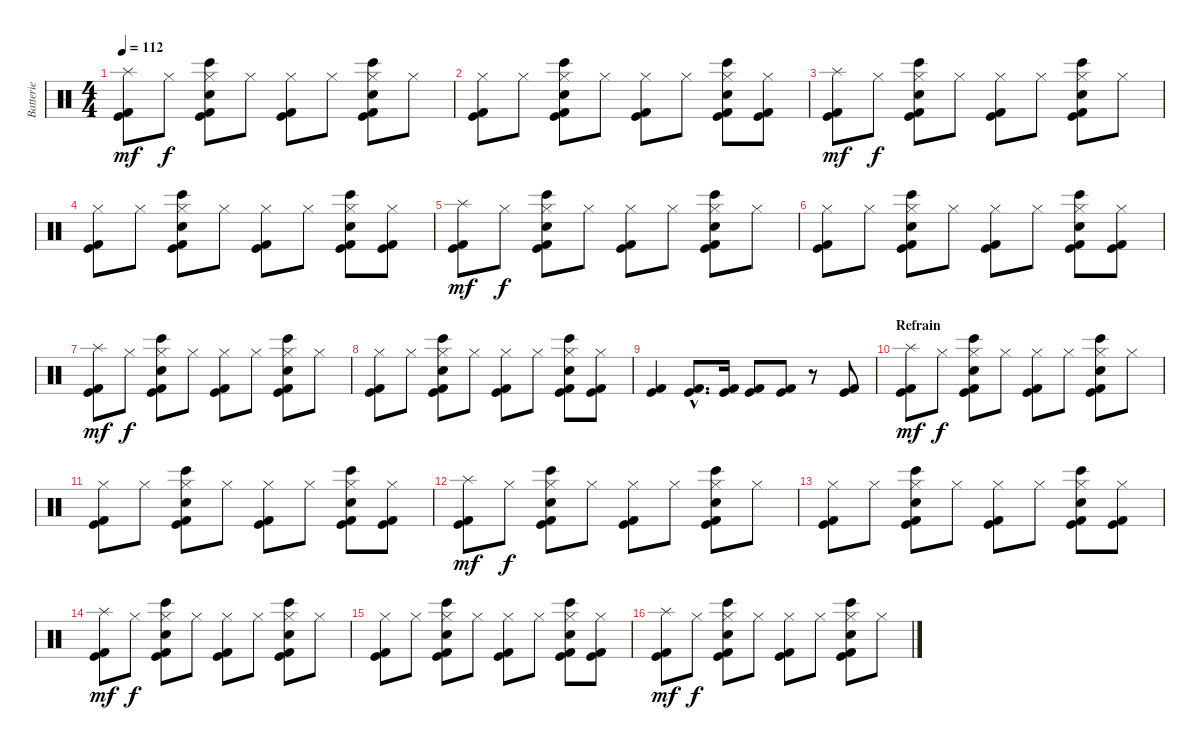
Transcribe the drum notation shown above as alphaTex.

\track ("Batterie" "Batterie") {instrument percussion}
\staff {score}
\articulation defaults
\ts (4 4)
\tempo 112
\clef neutral
\ks c
("Splash (hit)" "Kick (hit)" "Kick (hit) 2").8{dy mf} "Hi-Hat (closed)".8{dy f} ("Hi-Hat (closed)" "Electric Snare (hit)" "Bongo High (hit)" "Kick (hit)" "Kick (hit) 2").8 "Hi-Hat (closed)".8 ("Hi-Hat (closed)" "Kick (hit)" "Kick (hit) 2").8 "Hi-Hat (closed)".8 ("Hi-Hat (closed)" "Electric Snare (hit)" "Bongo High (hit)" "Kick (hit)" "Kick (hit) 2").8 "Hi-Hat (closed)".8 |
("Hi-Hat (closed)" "Kick (hit)" "Kick (hit) 2").8 "Hi-Hat (closed)".8 ("Hi-Hat (closed)" "Electric Snare (hit)" "Bongo High (hit)" "Kick (hit)" "Kick (hit) 2").8 "Hi-Hat (closed)".8 ("Hi-Hat (closed)" "Kick (hit)" "Kick (hit) 2").8 "Hi-Hat (closed)".8 ("Hi-Hat (closed)" "Electric Snare (hit)" "Bongo High (hit)" "Kick (hit)" "Kick (hit) 2").8 ("Hi-Hat (closed)" "Kick (hit)" "Kick (hit) 2").8 |
("Splash (hit)" "Kick (hit)" "Kick (hit) 2").8{dy mf} "Hi-Hat (closed)".8{dy f} ("Hi-Hat (closed)" "Electric Snare (hit)" "Bongo High (hit)" "Kick (hit)" "Kick (hit) 2").8 "Hi-Hat (closed)".8 ("Hi-Hat (closed)" "Kick (hit)" "Kick (hit) 2").8 "Hi-Hat (closed)".8 ("Hi-Hat (closed)" "Electric Snare (hit)" "Bongo High (hit)" "Kick (hit)" "Kick (hit) 2").8 "Hi-Hat (closed)".8 |
("Hi-Hat (closed)" "Kick (hit)" "Kick (hit) 2").8 "Hi-Hat (closed)".8 ("Hi-Hat (closed)" "Electric Snare (hit)" "Bongo High (hit)" "Kick (hit)" "Kick (hit) 2").8 "Hi-Hat (closed)".8 ("Hi-Hat (closed)" "Kick (hit)" "Kick (hit) 2").8 "Hi-Hat (closed)".8 ("Hi-Hat (closed)" "Electric Snare (hit)" "Bongo High (hit)" "Kick (hit)" "Kick (hit) 2").8 ("Hi-Hat (closed)" "Kick (hit)" "Kick (hit) 2").8 |
("Splash (hit)" "Kick (hit)" "Kick (hit) 2").8{dy mf} "Hi-Hat (closed)".8{dy f} ("Hi-Hat (closed)" "Electric Snare (hit)" "Bongo High (hit)" "Kick (hit)" "Kick (hit) 2").8 "Hi-Hat (closed)".8 ("Hi-Hat (closed)" "Kick (hit)" "Kick (hit) 2").8 "Hi-Hat (closed)".8 ("Hi-Hat (closed)" "Electric Snare (hit)" "Bongo High (hit)" "Kick (hit)" "Kick (hit) 2").8 "Hi-Hat (closed)".8 |
("Hi-Hat (closed)" "Kick (hit)" "Kick (hit) 2").8 "Hi-Hat (closed)".8 ("Hi-Hat (closed)" "Electric Snare (hit)" "Bongo High (hit)" "Kick (hit)" "Kick (hit) 2").8 "Hi-Hat (closed)".8 ("Hi-Hat (closed)" "Kick (hit)" "Kick (hit) 2").8 "Hi-Hat (closed)".8 ("Hi-Hat (closed)" "Electric Snare (hit)" "Bongo High (hit)" "Kick (hit)" "Kick (hit) 2").8 ("Hi-Hat (closed)" "Kick (hit)" "Kick (hit) 2").8 |
("Splash (hit)" "Kick (hit)" "Kick (hit) 2").8{dy mf} "Hi-Hat (closed)".8{dy f} ("Hi-Hat (closed)" "Electric Snare (hit)" "Bongo High (hit)" "Kick (hit)" "Kick (hit) 2").8 "Hi-Hat (closed)".8 ("Hi-Hat (closed)" "Kick (hit)" "Kick (hit) 2").8 "Hi-Hat (closed)".8 ("Hi-Hat (closed)" "Electric Snare (hit)" "Bongo High (hit)" "Kick (hit)" "Kick (hit) 2").8 "Hi-Hat (closed)".8 |
("Hi-Hat (closed)" "Kick (hit)" "Kick (hit) 2").8 "Hi-Hat (closed)".8 ("Hi-Hat (closed)" "Electric Snare (hit)" "Bongo High (hit)" "Kick (hit)" "Kick (hit) 2").8 "Hi-Hat (closed)".8 ("Hi-Hat (closed)" "Kick (hit)" "Kick (hit) 2").8 "Hi-Hat (closed)".8 ("Hi-Hat (closed)" "Electric Snare (hit)" "Bongo High (hit)" "Kick (hit)" "Kick (hit) 2").8 ("Hi-Hat (closed)" "Kick (hit)" "Kick (hit) 2").8 |
("Kick (hit)" "Kick (hit) 2").4 ("Kick (hit)"{hac} "Kick (hit) 2"{hac}).8{d} ("Kick (hit)" "Kick (hit) 2").16 ("Kick (hit)" "Kick (hit) 2").8 ("Kick (hit)" "Kick (hit) 2").8 r.8 ("Kick (hit)" "Kick (hit) 2").8 |
\section ("" "Refrain")
("Splash (hit)" "Kick (hit)" "Kick (hit) 2").8{dy mf} "Hi-Hat (closed)".8{dy f} ("Hi-Hat (closed)" "Electric Snare (hit)" "Bongo High (hit)" "Kick (hit)" "Kick (hit) 2").8 "Hi-Hat (closed)".8 ("Hi-Hat (closed)" "Kick (hit)" "Kick (hit) 2").8 "Hi-Hat (closed)".8 ("Hi-Hat (closed)" "Electric Snare (hit)" "Bongo High (hit)" "Kick (hit)" "Kick (hit) 2").8 "Hi-Hat (closed)".8 |
("Hi-Hat (closed)" "Kick (hit)" "Kick (hit) 2").8 "Hi-Hat (closed)".8 ("Hi-Hat (closed)" "Electric Snare (hit)" "Bongo High (hit)" "Kick (hit)" "Kick (hit) 2").8 "Hi-Hat (closed)".8 ("Hi-Hat (closed)" "Kick (hit)" "Kick (hit) 2").8 "Hi-Hat (closed)".8 ("Hi-Hat (closed)" "Electric Snare (hit)" "Bongo High (hit)" "Kick (hit)" "Kick (hit) 2").8 ("Hi-Hat (closed)" "Kick (hit)" "Kick (hit) 2").8 |
("Splash (hit)" "Kick (hit)" "Kick (hit) 2").8{dy mf} "Hi-Hat (closed)".8{dy f} ("Hi-Hat (closed)" "Electric Snare (hit)" "Bongo High (hit)" "Kick (hit)" "Kick (hit) 2").8 "Hi-Hat (closed)".8 ("Hi-Hat (closed)" "Kick (hit)" "Kick (hit) 2").8 "Hi-Hat (closed)".8 ("Hi-Hat (closed)" "Electric Snare (hit)" "Bongo High (hit)" "Kick (hit)" "Kick (hit) 2").8 "Hi-Hat (closed)".8 |
("Hi-Hat (closed)" "Kick (hit)" "Kick (hit) 2").8 "Hi-Hat (closed)".8 ("Hi-Hat (closed)" "Electric Snare (hit)" "Bongo High (hit)" "Kick (hit)" "Kick (hit) 2").8 "Hi-Hat (closed)".8 ("Hi-Hat (closed)" "Kick (hit)" "Kick (hit) 2").8 "Hi-Hat (closed)".8 ("Hi-Hat (closed)" "Electric Snare (hit)" "Bongo High (hit)" "Kick (hit)" "Kick (hit) 2").8 ("Hi-Hat (closed)" "Kick (hit)" "Kick (hit) 2").8 |
("Splash (hit)" "Kick (hit)" "Kick (hit) 2").8{dy mf} "Hi-Hat (closed)".8{dy f} ("Hi-Hat (closed)" "Electric Snare (hit)" "Bongo High (hit)" "Kick (hit)" "Kick (hit) 2").8 "Hi-Hat (closed)".8 ("Hi-Hat (closed)" "Kick (hit)" "Kick (hit) 2").8 "Hi-Hat (closed)".8 ("Hi-Hat (closed)" "Electric Snare (hit)" "Bongo High (hit)" "Kick (hit)" "Kick (hit) 2").8 "Hi-Hat (closed)".8 |
("Hi-Hat (closed)" "Kick (hit)" "Kick (hit) 2").8 "Hi-Hat (closed)".8 ("Hi-Hat (closed)" "Electric Snare (hit)" "Bongo High (hit)" "Kick (hit)" "Kick (hit) 2").8 "Hi-Hat (closed)".8 ("Hi-Hat (closed)" "Kick (hit)" "Kick (hit) 2").8 "Hi-Hat (closed)".8 ("Hi-Hat (closed)" "Electric Snare (hit)" "Bongo High (hit)" "Kick (hit)" "Kick (hit) 2").8 ("Hi-Hat (closed)" "Kick (hit)" "Kick (hit) 2").8 |
("Splash (hit)" "Kick (hit)" "Kick (hit) 2").8{dy mf} "Hi-Hat (closed)".8{dy f} ("Hi-Hat (closed)" "Electric Snare (hit)" "Bongo High (hit)" "Kick (hit)" "Kick (hit) 2").8 "Hi-Hat (closed)".8 ("Hi-Hat (closed)" "Kick (hit)" "Kick (hit) 2").8 "Hi-Hat (closed)".8 ("Hi-Hat (closed)" "Electric Snare (hit)" "Bongo High (hit)" "Kick (hit)" "Kick (hit) 2").8 "Hi-Hat (closed)".8
